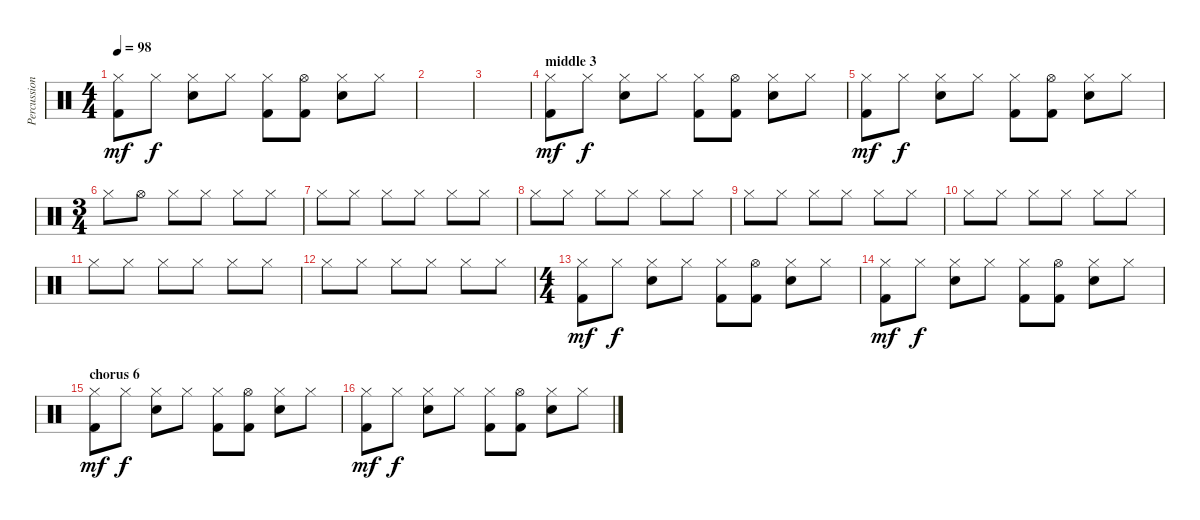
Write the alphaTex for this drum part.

\track ("Percussion" "Percussion") {instrument percussion}
\staff {score}
\articulation defaults
\ts (4 4)
\tempo 98
\clef neutral
\ks c
("Hi-Hat (closed)" "Kick (hit) 2").8{dy mf} "Hi-Hat (closed)".8{dy f} ("Hi-Hat (closed)" "Snare (hit) 2").8 "Hi-Hat (closed)".8 ("Hi-Hat (closed)" "Kick (hit) 2").8 ("Hi-Hat (open)" "Kick (hit) 2").8 ("Hi-Hat (closed)" "Snare (hit) 2").8 "Hi-Hat (closed)".8 |
|
|
\section ("" "middle 3")
("Hi-Hat (closed)" "Kick (hit) 2").8{dy mf} "Hi-Hat (closed)".8{dy f} ("Hi-Hat (closed)" "Snare (hit) 2").8 "Hi-Hat (closed)".8 ("Hi-Hat (closed)" "Kick (hit) 2").8 ("Hi-Hat (open)" "Kick (hit) 2").8 ("Hi-Hat (closed)" "Snare (hit) 2").8 "Hi-Hat (closed)".8 |
("Hi-Hat (closed)" "Kick (hit) 2").8{dy mf} "Hi-Hat (closed)".8{dy f} ("Hi-Hat (closed)" "Snare (hit) 2").8 "Hi-Hat (closed)".8 ("Hi-Hat (closed)" "Kick (hit) 2").8 ("Hi-Hat (open)" "Kick (hit) 2").8 ("Hi-Hat (closed)" "Snare (hit) 2").8 "Hi-Hat (closed)".8 |
\ts (3 4)
"Hi-Hat (closed)".8 "Hi-Hat (open)".8 "Hi-Hat (closed)".8 "Hi-Hat (closed)".8 "Hi-Hat (closed)".8 "Hi-Hat (closed)".8 |
"Hi-Hat (closed)".8 "Hi-Hat (closed)".8 "Hi-Hat (closed)".8 "Hi-Hat (closed)".8 "Hi-Hat (closed)".8 "Hi-Hat (closed)".8 |
"Hi-Hat (closed)".8 "Hi-Hat (closed)".8 "Hi-Hat (closed)".8 "Hi-Hat (closed)".8 "Hi-Hat (closed)".8 "Hi-Hat (closed)".8 |
"Hi-Hat (closed)".8 "Hi-Hat (closed)".8 "Hi-Hat (closed)".8 "Hi-Hat (closed)".8 "Hi-Hat (closed)".8 "Hi-Hat (closed)".8 |
"Hi-Hat (closed)".8 "Hi-Hat (closed)".8 "Hi-Hat (closed)".8 "Hi-Hat (closed)".8 "Hi-Hat (closed)".8 "Hi-Hat (closed)".8 |
"Hi-Hat (closed)".8 "Hi-Hat (closed)".8 "Hi-Hat (closed)".8 "Hi-Hat (closed)".8 "Hi-Hat (closed)".8 "Hi-Hat (closed)".8 |
"Hi-Hat (closed)".8 "Hi-Hat (closed)".8 "Hi-Hat (closed)".8 "Hi-Hat (closed)".8 "Hi-Hat (closed)".8 "Hi-Hat (closed)".8 |
\ts (4 4)
("Hi-Hat (closed)" "Kick (hit) 2").8{dy mf} "Hi-Hat (closed)".8{dy f} ("Hi-Hat (closed)" "Snare (hit) 2").8 "Hi-Hat (closed)".8 ("Hi-Hat (closed)" "Kick (hit) 2").8 ("Hi-Hat (open)" "Kick (hit) 2").8 ("Hi-Hat (closed)" "Snare (hit) 2").8 "Hi-Hat (closed)".8 |
("Hi-Hat (closed)" "Kick (hit) 2").8{dy mf} "Hi-Hat (closed)".8{dy f} ("Hi-Hat (closed)" "Snare (hit) 2").8 "Hi-Hat (closed)".8 ("Hi-Hat (closed)" "Kick (hit) 2").8 ("Hi-Hat (open)" "Kick (hit) 2").8 ("Hi-Hat (closed)" "Snare (hit) 2").8 "Hi-Hat (closed)".8 |
\section ("" "chorus 6")
("Hi-Hat (closed)" "Kick (hit) 2").8{dy mf} "Hi-Hat (closed)".8{dy f} ("Hi-Hat (closed)" "Snare (hit) 2").8 "Hi-Hat (closed)".8 ("Hi-Hat (closed)" "Kick (hit) 2").8 ("Hi-Hat (open)" "Kick (hit) 2").8 ("Hi-Hat (closed)" "Snare (hit) 2").8 "Hi-Hat (closed)".8 |
("Hi-Hat (closed)" "Kick (hit) 2").8{dy mf} "Hi-Hat (closed)".8{dy f} ("Hi-Hat (closed)" "Snare (hit) 2").8 "Hi-Hat (closed)".8 ("Hi-Hat (closed)" "Kick (hit) 2").8 ("Hi-Hat (open)" "Kick (hit) 2").8 ("Hi-Hat (closed)" "Snare (hit) 2").8 "Hi-Hat (closed)".8
